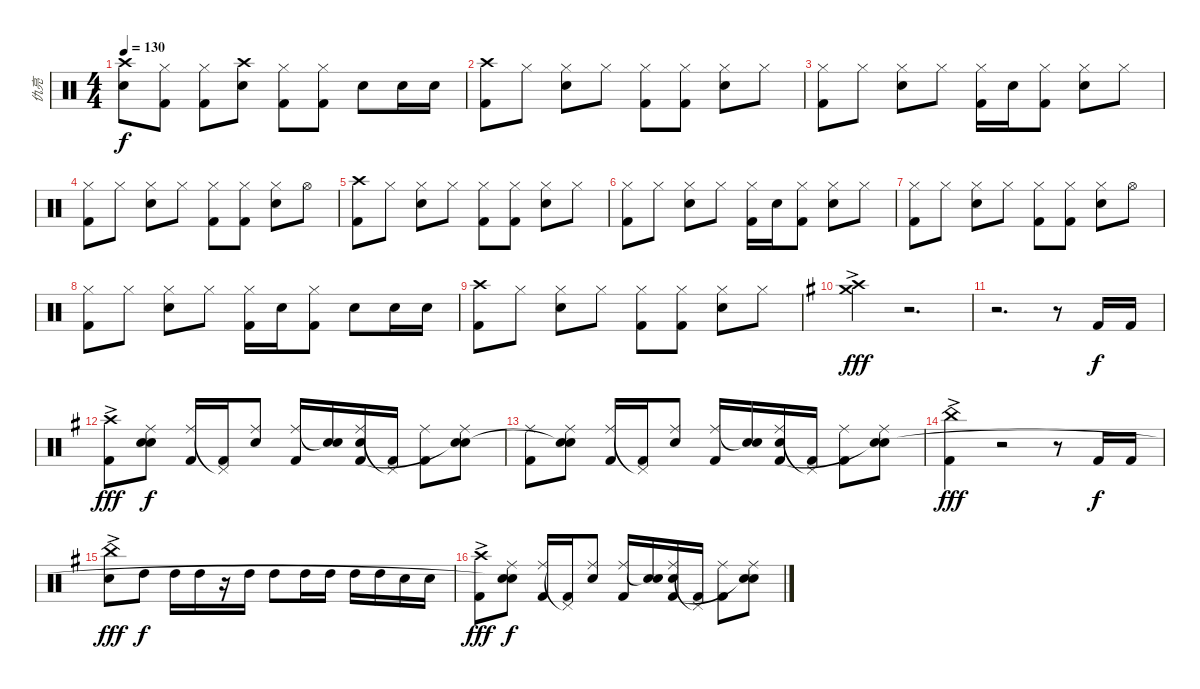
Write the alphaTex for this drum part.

\track ("仇亮" "仇亮") {instrument percussion}
\staff {score}
\articulation defaults
\ts (4 4)
\tempo 130
\clef neutral
\ks c
("Crash high (hit)" "Electric Snare (hit)").8{dy f} ("Hi-Hat (closed)" "Kick (hit) 2").8 ("Hi-Hat (closed)" "Kick (hit) 2").8 ("Crash high (hit)" "Electric Snare (hit)").8 ("Hi-Hat (closed)" "Kick (hit) 2").8 ("Hi-Hat (closed)" "Kick (hit) 2").8 "Electric Snare (hit)".8 "Electric Snare (hit)".16 "Electric Snare (hit)".16 |
("Crash high (hit)" "Kick (hit) 2").8 "Hi-Hat (closed)".8 ("Hi-Hat (closed)" "Electric Snare (hit)").8 "Hi-Hat (closed)".8 ("Hi-Hat (closed)" "Kick (hit) 2").8 ("Hi-Hat (closed)" "Kick (hit) 2").8 ("Hi-Hat (closed)" "Electric Snare (hit)").8 "Hi-Hat (closed)".8 |
("Hi-Hat (closed)" "Kick (hit) 2").8 "Hi-Hat (closed)".8 ("Hi-Hat (closed)" "Electric Snare (hit)").8 "Hi-Hat (closed)".8 ("Hi-Hat (closed)" "Kick (hit) 2").16 "Electric Snare (hit)".16 ("Hi-Hat (closed)" "Kick (hit) 2").8 ("Hi-Hat (closed)" "Electric Snare (hit)").8 "Hi-Hat (closed)".8 |
("Hi-Hat (closed)" "Kick (hit) 2").8 "Hi-Hat (closed)".8 ("Hi-Hat (closed)" "Electric Snare (hit)").8 "Hi-Hat (closed)".8 ("Hi-Hat (closed)" "Kick (hit) 2").8 ("Hi-Hat (closed)" "Kick (hit) 2").8 ("Hi-Hat (closed)" "Electric Snare (hit)").8 "Hi-Hat (open)".8 |
("Crash high (hit)" "Kick (hit) 2").8 "Hi-Hat (closed)".8 ("Hi-Hat (closed)" "Electric Snare (hit)").8 "Hi-Hat (closed)".8 ("Hi-Hat (closed)" "Kick (hit) 2").8 ("Hi-Hat (closed)" "Kick (hit) 2").8 ("Hi-Hat (closed)" "Electric Snare (hit)").8 "Hi-Hat (closed)".8 |
("Hi-Hat (closed)" "Kick (hit) 2").8 "Hi-Hat (closed)".8 ("Hi-Hat (closed)" "Electric Snare (hit)").8 "Hi-Hat (closed)".8 ("Hi-Hat (closed)" "Kick (hit) 2").16 "Electric Snare (hit)".16 ("Hi-Hat (closed)" "Kick (hit) 2").8 ("Hi-Hat (closed)" "Electric Snare (hit)").8 "Hi-Hat (closed)".8 |
("Hi-Hat (closed)" "Kick (hit) 2").8 "Hi-Hat (closed)".8 ("Hi-Hat (closed)" "Electric Snare (hit)").8 "Hi-Hat (closed)".8 ("Hi-Hat (closed)" "Kick (hit) 2").8 ("Hi-Hat (closed)" "Kick (hit) 2").8 ("Hi-Hat (closed)" "Electric Snare (hit)").8 "Hi-Hat (open)".8 |
("Hi-Hat (closed)" "Kick (hit) 2").8 "Hi-Hat (closed)".8 ("Hi-Hat (closed)" "Electric Snare (hit)").8 "Hi-Hat (closed)".8 ("Hi-Hat (closed)" "Kick (hit) 2").16 "Electric Snare (hit)".16 ("Hi-Hat (closed)" "Kick (hit) 2").8 "Electric Snare (hit)".8 "Electric Snare (hit)".16 "Electric Snare (hit)".16 |
("Crash high (hit)" "Kick (hit) 2").8 "Hi-Hat (closed)".8 ("Hi-Hat (closed)" "Electric Snare (hit)").8 "Hi-Hat (closed)".8 ("Hi-Hat (closed)" "Kick (hit) 2").8 ("Hi-Hat (closed)" "Kick (hit) 2").8 ("Hi-Hat (closed)" "Electric Snare (hit)").8 "Hi-Hat (closed)".8 |
\ks g
("Crash medium (hit)"{ac} "Crash high (hit)"{ac}).4{dy fff} r.2{d} |
r.2{d} r.8 "Kick (hit) 2".16{dy f} "Kick (hit) 2".16 |
("Crash high (hit)"{ac} "Kick (hit) 2"{ac}).8{dy fff} ("Ride (middle)" "Snare (hit) 2" "Snare (hit)").8{dy f} ("Ride (middle)" "Kick (hit) 2").16 ("Pedal Hi-Hat (hit)"{t} "Kick (hit) 2").16 ("Ride (middle)" "Snare (hit) 2").8 ("Ride (middle)" "Kick (hit) 2").16 ("Snare (hit)"{t} "Snare (hit)").16 ("Ride (middle)" "Snare (hit) 2" "Kick (hit) 2").16 ("Pedal Hi-Hat (hit)"{t} "Kick (hit) 2").16 ("Ride (middle)" "Kick (hit) 2").8 ("Ride (middle)" "Snare (hit) 2" "Snare (hit)"{t}).8 |
("Ride (middle)" "Kick (hit) 2").8 ("Ride (middle)" "Snare (hit) 2" "Snare (hit)"{t}).8 ("Ride (middle)" "Kick (hit) 2").16 ("Pedal Hi-Hat (hit)"{t} "Kick (hit) 2").16 ("Ride (middle)" "Snare (hit) 2").8 ("Ride (middle)" "Kick (hit) 2").16 ("Snare (hit)"{t} "Snare (hit)").16 ("Ride (middle)" "Snare (hit) 2" "Kick (hit) 2").16 ("Pedal Hi-Hat (hit)"{t} "Kick (hit) 2").16 ("Ride (middle)" "Kick (hit) 2").8 ("Ride (middle)" "Snare (hit) 2" "Snare (hit)"{t}).8 |
("China (hit)"{ac} "Kick (hit) 2"{ac}).4{dy fff} r.2 r.8 "Kick (hit) 2".16{dy f} "Kick (hit) 2".16 |
("China (hit)"{ac} "Snare (hit) 2"{ac}).8{dy fff} "High Tom (hit)".8{dy f} "High Tom (hit)".16 "High Tom (hit)".16 r.16 "High Tom (hit)".16 "High Tom (hit)".8 "High Tom (hit)".16 "High Tom (hit)".16 "High Tom (hit)".16 "High Tom (hit)".16 "Snare (hit) 2".16 "Snare (hit) 2".16 |
("Crash high (hit)"{ac} "Kick (hit) 2"{ac}).8{dy fff} ("Ride (middle)" "Snare (hit) 2" "Snare (hit)"{t}).8{dy f} ("Ride (middle)" "Kick (hit) 2").16 ("Pedal Hi-Hat (hit)"{t} "Kick (hit) 2").16 ("Ride (middle)" "Snare (hit) 2").8 ("Ride (middle)" "Kick (hit) 2").16 ("Snare (hit)"{t} "Snare (hit)").16 ("Ride (middle)" "Snare (hit) 2" "Kick (hit) 2").16 ("Pedal Hi-Hat (hit)"{t} "Kick (hit) 2").16 ("Ride (middle)" "Kick (hit) 2").8 ("Ride (middle)" "Snare (hit) 2" "Snare (hit)"{t}).8
